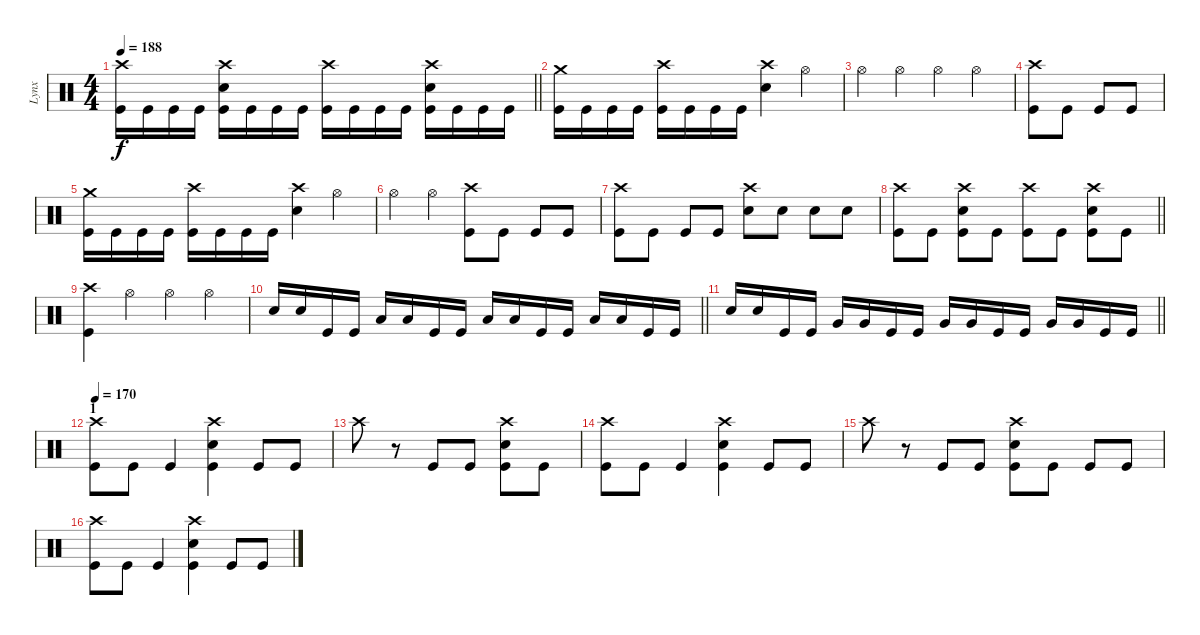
\track ("Lynx" "Lynx") {instrument percussion}
\staff {score}
\articulation defaults
\ts (4 4)
\tempo 188
\clef neutral
\barLineRight lightlight
\ks c
("Crash high (hit)" "Kick (hit)").16{dy f} "Kick (hit)".16 "Kick (hit)".16 "Kick (hit)".16 ("Crash high (hit)" "Kick (hit)" "Electric Snare (hit)").16 "Kick (hit)".16 "Kick (hit)".16 "Kick (hit)".16 ("Crash high (hit)" "Kick (hit)").16 "Kick (hit)".16 "Kick (hit)".16 "Kick (hit)".16 ("Crash high (hit)" "Kick (hit)" "Electric Snare (hit)").16 "Kick (hit)".16 "Kick (hit)".16 "Kick (hit)".16 |
\section ("" "")
("Kick (hit)" "Crash medium (hit)").16 "Kick (hit)".16 "Kick (hit)".16 "Kick (hit)".16 ("Kick (hit)" "Crash high (hit)").16 "Kick (hit)".16 "Kick (hit)".16 "Kick (hit)".16 ("Electric Snare (hit)" "Crash high (hit)").4 "Hi-Hat (open)".4 |
"Hi-Hat (open)".4 "Hi-Hat (open)".4 "Hi-Hat (open)".4 "Hi-Hat (open)".4 |
("Kick (hit)" "Crash high (hit)").8 "Kick (hit)".8 "Kick (hit)".8 "Kick (hit)".8 |
("Kick (hit)" "Crash medium (hit)").16 "Kick (hit)".16 "Kick (hit)".16 "Kick (hit)".16 ("Kick (hit)" "Crash high (hit)").16 "Kick (hit)".16 "Kick (hit)".16 "Kick (hit)".16 ("Electric Snare (hit)" "Crash high (hit)").4 "Hi-Hat (open)".4 |
"Hi-Hat (open)".4 "Hi-Hat (open)".4 ("Kick (hit)" "Crash high (hit)").8 "Kick (hit)".8 "Kick (hit)".8 "Kick (hit)".8 |
("Kick (hit)" "Crash high (hit)").8 "Kick (hit)".8 "Kick (hit)".8 "Kick (hit)".8 ("Electric Snare (hit)" "Crash high (hit)").8 "Electric Snare (hit)".8 "Electric Snare (hit)".8 "Electric Snare (hit)".8 |
\barLineRight lightlight
("Kick (hit)" "Crash high (hit)").8 "Kick (hit)".8 ("Kick (hit)" "Crash high (hit)" "Electric Snare (hit)").8 "Kick (hit)".8 ("Kick (hit)" "Crash high (hit)").8 "Kick (hit)".8 ("Kick (hit)" "Crash high (hit)" "Electric Snare (hit)").8 "Kick (hit)".8 |
("Crash high (hit)" "Kick (hit)").4 "Hi-Hat (open)".4 "Hi-Hat (open)".4 "Hi-Hat (open)".4 |
\barLineRight lightlight "Electric Snare (hit)".16 "Electric Snare (hit)".16 "Kick (hit)".16 "Kick (hit)".16 "Low Tom (hit)".16 "Low Tom (hit)".16 "Kick (hit)".16 "Kick (hit)".16 "Low Tom (hit)".16 "Low Tom (hit)".16 "Kick (hit)".16 "Kick (hit)".16 "Low Tom (hit)".16 "Low Tom (hit)".16 "Kick (hit)".16 "Kick (hit)".16
|
\barLineRight lightlight "Electric Snare (hit)".16 "Electric Snare (hit)".16 "Kick (hit)".16 "Kick (hit)".16 "Very Low Tom (hit)".16 "Very Low Tom (hit)".16 "Kick (hit)".16 "Kick (hit)".16 "Very Low Tom (hit)".16 "Very Low Tom (hit)".16 "Kick (hit)".16 "Kick (hit)".16 "Very Low Tom (hit)".16 "Very Low Tom (hit)".16 "Kick (hit)".16 "Kick (hit)".16
|
\section ("" "1")
\tempo 170
("Crash high (hit)" "Kick (hit)").8 "Kick (hit)".8 "Kick (hit)".4 ("Crash high (hit)" "Electric Snare (hit)" "Kick (hit)").4 "Kick (hit)".8 "Kick (hit)".8 |
"Crash high (hit)".8 r.8 "Kick (hit)".8 "Kick (hit)".8 ("Crash high (hit)" "Electric Snare (hit)" "Kick (hit)").8 "Kick (hit)".8 |
("Crash high (hit)" "Kick (hit)").8 "Kick (hit)".8 "Kick (hit)".4 ("Crash high (hit)" "Electric Snare (hit)" "Kick (hit)").4 "Kick (hit)".8 "Kick (hit)".8 |
"Crash high (hit)".8 r.8 "Kick (hit)".8 "Kick (hit)".8 ("Crash high (hit)" "Electric Snare (hit)" "Kick (hit)").8 "Kick (hit)".8 "Kick (hit)".8 "Kick (hit)".8 |
("Crash high (hit)" "Kick (hit)").8 "Kick (hit)".8 "Kick (hit)".4 ("Crash high (hit)" "Electric Snare (hit)" "Kick (hit)").4 "Kick (hit)".8 "Kick (hit)".8
